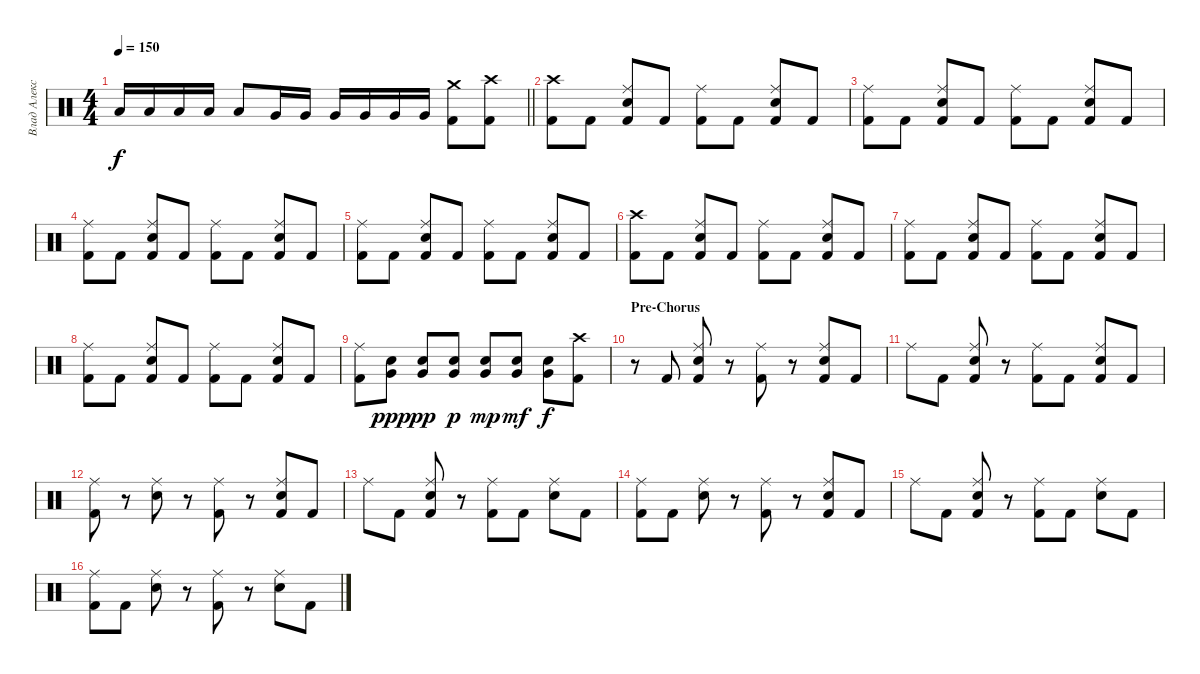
\track ("Влад Алексеенко" "Влад Алекс") {instrument percussion}
\staff {score}
\articulation defaults
\ts (4 4)
\tempo 150
\clef neutral
\barLineRight lightlight
\ks c "Low Tom (hit)".16{dy f} "Low Tom (hit)".16 "Low Tom (hit)".16 "Low Tom (hit)".16 "Low Tom (hit)".8 "Very Low Tom (hit)".16 "Very Low Tom (hit)".16 "Very Low Tom (hit)".16 "Very Low Tom (hit)".16 "Very Low Tom (hit)".16 "Very Low Tom (hit)".16
("Crash medium (hit)" "Kick (hit) 2").8 ("Crash high (hit)" "Kick (hit) 2").8 |
("Crash high (hit)" "Kick (hit) 2").8 "Kick (hit) 2".8 ("Ride (middle)" "Electric Snare (hit)" "Kick (hit) 2").8 "Kick (hit) 2".8 ("Ride (middle)" "Kick (hit) 2").8 "Kick (hit) 2".8 ("Ride (middle)" "Electric Snare (hit)" "Kick (hit) 2").8 "Kick (hit) 2".8 |
("Ride (middle)" "Kick (hit) 2").8 "Kick (hit) 2".8 ("Ride (middle)" "Electric Snare (hit)" "Kick (hit) 2").8 "Kick (hit) 2".8 ("Ride (middle)" "Kick (hit) 2").8 "Kick (hit) 2".8 ("Ride (middle)" "Electric Snare (hit)" "Kick (hit) 2").8 "Kick (hit) 2".8 |
("Ride (middle)" "Kick (hit) 2").8 "Kick (hit) 2".8 ("Ride (middle)" "Electric Snare (hit)" "Kick (hit) 2").8 "Kick (hit) 2".8 ("Ride (middle)" "Kick (hit) 2").8 "Kick (hit) 2".8 ("Ride (middle)" "Electric Snare (hit)" "Kick (hit) 2").8 "Kick (hit) 2".8 |
("Ride (middle)" "Kick (hit) 2").8 "Kick (hit) 2".8 ("Ride (middle)" "Electric Snare (hit)" "Kick (hit) 2").8 "Kick (hit) 2".8 ("Ride (middle)" "Kick (hit) 2").8 "Kick (hit) 2".8 ("Ride (middle)" "Electric Snare (hit)" "Kick (hit) 2").8 "Kick (hit) 2".8 |
("Crash high (hit)" "Kick (hit) 2").8 "Kick (hit) 2".8 ("Ride (middle)" "Electric Snare (hit)" "Kick (hit) 2").8 "Kick (hit) 2".8 ("Ride (middle)" "Kick (hit) 2").8 "Kick (hit) 2".8 ("Ride (middle)" "Electric Snare (hit)" "Kick (hit) 2").8 "Kick (hit) 2".8 |
("Ride (middle)" "Kick (hit) 2").8 "Kick (hit) 2".8 ("Ride (middle)" "Electric Snare (hit)" "Kick (hit) 2").8 "Kick (hit) 2".8 ("Ride (middle)" "Kick (hit) 2").8 "Kick (hit) 2".8 ("Ride (middle)" "Electric Snare (hit)" "Kick (hit) 2").8 "Kick (hit) 2".8 |
("Ride (middle)" "Kick (hit) 2").8 "Kick (hit) 2".8 ("Ride (middle)" "Electric Snare (hit)" "Kick (hit) 2").8 "Kick (hit) 2".8 ("Ride (middle)" "Kick (hit) 2").8 "Kick (hit) 2".8 ("Ride (middle)" "Electric Snare (hit)" "Kick (hit) 2").8 "Kick (hit) 2".8 |
("Ride (middle)" "Kick (hit) 2").8 ("Electric Snare (hit)" "Very Low Tom (hit)").8{dy ppp} ("Electric Snare (hit)" "Very Low Tom (hit)").8{dy pp} ("Electric Snare (hit)" "Very Low Tom (hit)").8{dy p} ("Electric Snare (hit)" "Very Low Tom (hit)").8{dy mp} ("Electric Snare (hit)" "Very Low Tom (hit)").8{dy mf} ("Electric Snare (hit)" "Very Low Tom (hit)").8{dy f} ("Crash high (hit)" "Kick (hit) 2").8 |
\section ("" "Pre-Chorus")
r.8 "Kick (hit) 2".8 ("Ride (middle)" "Electric Snare (hit)" "Kick (hit) 2").8 r.8 ("Ride (middle)" "Kick (hit) 2").8 r.8 ("Ride (middle)" "Electric Snare (hit)" "Kick (hit) 2").8 "Kick (hit) 2".8 |
"Ride (middle)".8 "Kick (hit) 2".8 ("Ride (middle)" "Electric Snare (hit)" "Kick (hit) 2").8 r.8 ("Ride (middle)" "Kick (hit) 2").8 "Kick (hit) 2".8 ("Ride (middle)" "Electric Snare (hit)" "Kick (hit) 2").8 "Kick (hit) 2".8 |
("Ride (middle)" "Kick (hit) 2").8 r.8 ("Ride (middle)" "Electric Snare (hit)").8 r.8 ("Ride (middle)" "Kick (hit) 2").8 r.8 ("Ride (middle)" "Electric Snare (hit)" "Kick (hit) 2").8 "Kick (hit) 2".8 |
"Ride (middle)".8 "Kick (hit) 2".8 ("Ride (middle)" "Electric Snare (hit)" "Kick (hit) 2").8 r.8 ("Ride (middle)" "Kick (hit) 2").8 "Kick (hit) 2".8 ("Ride (middle)" "Electric Snare (hit)").8 "Kick (hit) 2".8 |
("Ride (middle)" "Kick (hit) 2").8 "Kick (hit) 2".8 ("Ride (middle)" "Electric Snare (hit)").8 r.8 ("Ride (middle)" "Kick (hit) 2").8 r.8 ("Ride (middle)" "Electric Snare (hit)" "Kick (hit) 2").8 "Kick (hit) 2".8 |
"Ride (middle)".8 "Kick (hit) 2".8 ("Ride (middle)" "Electric Snare (hit)" "Kick (hit) 2").8 r.8 ("Ride (middle)" "Kick (hit) 2").8 "Kick (hit) 2".8 ("Ride (middle)" "Electric Snare (hit)").8 "Kick (hit) 2".8 |
("Ride (middle)" "Kick (hit) 2").8 "Kick (hit) 2".8 ("Ride (middle)" "Electric Snare (hit)").8 r.8 ("Ride (middle)" "Kick (hit) 2").8 r.8 ("Ride (middle)" "Electric Snare (hit)").8 "Kick (hit) 2".8
